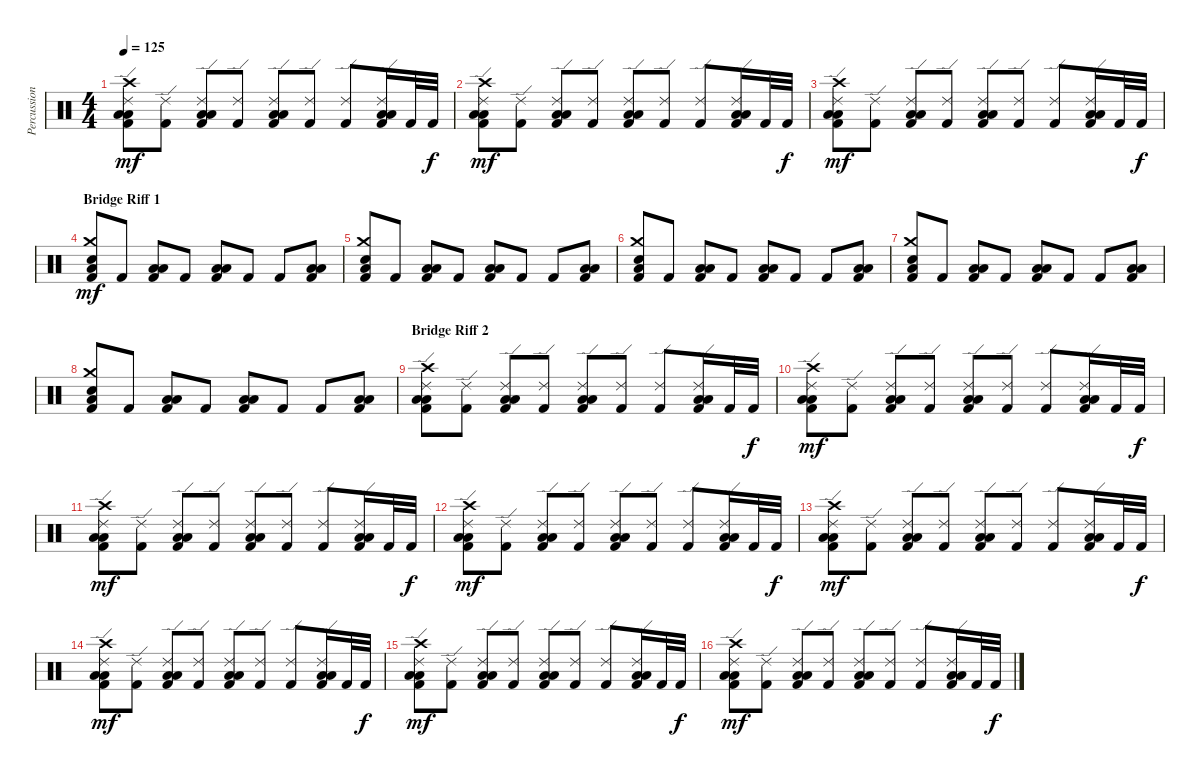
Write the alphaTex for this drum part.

\track ("Percussion" "Percussion") {instrument percussion}
\staff {score}
\articulation defaults
\ts (4 4)
\tempo 125
\clef neutral
\ks c
("Crash high (hit)" "Ride (edge) 2" "Low Tom (hit)" "Low Tom (hit)" "Kick (hit) 2").8{dy mf} ("Ride (edge) 2" "Kick (hit) 2").8 ("Ride (edge) 2" "Low Tom (hit)" "Low Tom (hit)" "Kick (hit) 2").8 ("Ride (edge) 2" "Kick (hit) 2").8 ("Ride (edge) 2" "Low Tom (hit)" "Low Tom (hit)" "Kick (hit) 2").8 ("Ride (edge) 2" "Kick (hit) 2").8 ("Ride (edge) 2" "Kick (hit) 2").8 ("Ride (edge) 2" "Low Tom (hit)" "Low Tom (hit)" "Kick (hit) 2").16 "Kick (hit) 2".32 "Kick (hit) 2".32{dy f} |
("Crash high (hit)" "Ride (edge) 2" "Low Tom (hit)" "Low Tom (hit)" "Kick (hit) 2").8{dy mf} ("Ride (edge) 2" "Kick (hit) 2").8 ("Ride (edge) 2" "Low Tom (hit)" "Low Tom (hit)" "Kick (hit) 2").8 ("Ride (edge) 2" "Kick (hit) 2").8 ("Ride (edge) 2" "Low Tom (hit)" "Low Tom (hit)" "Kick (hit) 2").8 ("Ride (edge) 2" "Kick (hit) 2").8 ("Ride (edge) 2" "Kick (hit) 2").8 ("Ride (edge) 2" "Low Tom (hit)" "Low Tom (hit)" "Kick (hit) 2").16 "Kick (hit) 2".32 "Kick (hit) 2".32{dy f} |
("Crash high (hit)" "Ride (edge) 2" "Low Tom (hit)" "Low Tom (hit)" "Kick (hit) 2").8{dy mf} ("Ride (edge) 2" "Kick (hit) 2").8 ("Ride (edge) 2" "Low Tom (hit)" "Low Tom (hit)" "Kick (hit) 2").8 ("Ride (edge) 2" "Kick (hit) 2").8 ("Ride (edge) 2" "Low Tom (hit)" "Low Tom (hit)" "Kick (hit) 2").8 ("Ride (edge) 2" "Kick (hit) 2").8 ("Ride (edge) 2" "Kick (hit) 2").8 ("Ride (edge) 2" "Low Tom (hit)" "Low Tom (hit)" "Kick (hit) 2").16 "Kick (hit) 2".32 "Kick (hit) 2".32{dy f} |
\section ("" "Bridge Riff 1")
("Crash medium (hit)" "Low Tom (hit)" "Electric Snare (hit)" "Kick (hit) 2").8{dy mf} "Kick (hit) 2".8 ("Low Tom (hit)" "Low Tom (hit)" "Kick (hit) 2").8 "Kick (hit) 2".8 ("Low Tom (hit)" "Low Tom (hit)" "Kick (hit) 2").8 "Kick (hit) 2".8 "Kick (hit) 2".8 ("Low Tom (hit)" "Low Tom (hit)" "Kick (hit) 2").8 |
("Crash medium (hit)" "Low Tom (hit)" "Electric Snare (hit)" "Kick (hit) 2").8 "Kick (hit) 2".8 ("Low Tom (hit)" "Low Tom (hit)" "Kick (hit) 2").8 "Kick (hit) 2".8 ("Low Tom (hit)" "Low Tom (hit)" "Kick (hit) 2").8 "Kick (hit) 2".8 "Kick (hit) 2".8 ("Low Tom (hit)" "Low Tom (hit)" "Kick (hit) 2").8 |
("Crash medium (hit)" "Low Tom (hit)" "Electric Snare (hit)" "Kick (hit) 2").8 "Kick (hit) 2".8 ("Low Tom (hit)" "Low Tom (hit)" "Kick (hit) 2").8 "Kick (hit) 2".8 ("Low Tom (hit)" "Low Tom (hit)" "Kick (hit) 2").8 "Kick (hit) 2".8 "Kick (hit) 2".8 ("Low Tom (hit)" "Low Tom (hit)" "Kick (hit) 2").8 |
("Crash medium (hit)" "Low Tom (hit)" "Electric Snare (hit)" "Kick (hit) 2").8 "Kick (hit) 2".8 ("Low Tom (hit)" "Low Tom (hit)" "Kick (hit) 2").8 "Kick (hit) 2".8 ("Low Tom (hit)" "Low Tom (hit)" "Kick (hit) 2").8 "Kick (hit) 2".8 "Kick (hit) 2".8 ("Low Tom (hit)" "Low Tom (hit)" "Kick (hit) 2").8 |
("Crash medium (hit)" "Low Tom (hit)" "Electric Snare (hit)" "Kick (hit) 2").8 "Kick (hit) 2".8 ("Low Tom (hit)" "Low Tom (hit)" "Kick (hit) 2").8 "Kick (hit) 2".8 ("Low Tom (hit)" "Low Tom (hit)" "Kick (hit) 2").8 "Kick (hit) 2".8 "Kick (hit) 2".8 ("Low Tom (hit)" "Low Tom (hit)" "Kick (hit) 2").8 |
\section ("" "Bridge Riff 2")
("Crash high (hit)" "Ride (edge) 2" "Low Tom (hit)" "Low Tom (hit)" "Kick (hit) 2").8 ("Ride (edge) 2" "Kick (hit) 2").8 ("Ride (edge) 2" "Low Tom (hit)" "Low Tom (hit)" "Kick (hit) 2").8 ("Ride (edge) 2" "Kick (hit) 2").8 ("Ride (edge) 2" "Low Tom (hit)" "Low Tom (hit)" "Kick (hit) 2").8 ("Ride (edge) 2" "Kick (hit) 2").8 ("Ride (edge) 2" "Kick (hit) 2").8 ("Ride (edge) 2" "Low Tom (hit)" "Low Tom (hit)" "Kick (hit) 2").16 "Kick (hit) 2".32 "Kick (hit) 2".32{dy f} |
("Crash high (hit)" "Ride (edge) 2" "Low Tom (hit)" "Low Tom (hit)" "Kick (hit) 2").8{dy mf} ("Ride (edge) 2" "Kick (hit) 2").8 ("Ride (edge) 2" "Low Tom (hit)" "Low Tom (hit)" "Kick (hit) 2").8 ("Ride (edge) 2" "Kick (hit) 2").8 ("Ride (edge) 2" "Low Tom (hit)" "Low Tom (hit)" "Kick (hit) 2").8 ("Ride (edge) 2" "Kick (hit) 2").8 ("Ride (edge) 2" "Kick (hit) 2").8 ("Ride (edge) 2" "Low Tom (hit)" "Low Tom (hit)" "Kick (hit) 2").16 "Kick (hit) 2".32 "Kick (hit) 2".32{dy f} |
("Crash high (hit)" "Ride (edge) 2" "Low Tom (hit)" "Low Tom (hit)" "Kick (hit) 2").8{dy mf} ("Ride (edge) 2" "Kick (hit) 2").8 ("Ride (edge) 2" "Low Tom (hit)" "Low Tom (hit)" "Kick (hit) 2").8 ("Ride (edge) 2" "Kick (hit) 2").8 ("Ride (edge) 2" "Low Tom (hit)" "Low Tom (hit)" "Kick (hit) 2").8 ("Ride (edge) 2" "Kick (hit) 2").8 ("Ride (edge) 2" "Kick (hit) 2").8 ("Ride (edge) 2" "Low Tom (hit)" "Low Tom (hit)" "Kick (hit) 2").16 "Kick (hit) 2".32 "Kick (hit) 2".32{dy f} |
("Crash high (hit)" "Ride (edge) 2" "Low Tom (hit)" "Low Tom (hit)" "Kick (hit) 2").8{dy mf} ("Ride (edge) 2" "Kick (hit) 2").8 ("Ride (edge) 2" "Low Tom (hit)" "Low Tom (hit)" "Kick (hit) 2").8 ("Ride (edge) 2" "Kick (hit) 2").8 ("Ride (edge) 2" "Low Tom (hit)" "Low Tom (hit)" "Kick (hit) 2").8 ("Ride (edge) 2" "Kick (hit) 2").8 ("Ride (edge) 2" "Kick (hit) 2").8 ("Ride (edge) 2" "Low Tom (hit)" "Low Tom (hit)" "Kick (hit) 2").16 "Kick (hit) 2".32 "Kick (hit) 2".32{dy f} |
("Crash high (hit)" "Ride (edge) 2" "Low Tom (hit)" "Low Tom (hit)" "Kick (hit) 2").8{dy mf} ("Ride (edge) 2" "Kick (hit) 2").8 ("Ride (edge) 2" "Low Tom (hit)" "Low Tom (hit)" "Kick (hit) 2").8 ("Ride (edge) 2" "Kick (hit) 2").8 ("Ride (edge) 2" "Low Tom (hit)" "Low Tom (hit)" "Kick (hit) 2").8 ("Ride (edge) 2" "Kick (hit) 2").8 ("Ride (edge) 2" "Kick (hit) 2").8 ("Ride (edge) 2" "Low Tom (hit)" "Low Tom (hit)" "Kick (hit) 2").16 "Kick (hit) 2".32 "Kick (hit) 2".32{dy f} |
("Crash high (hit)" "Ride (edge) 2" "Low Tom (hit)" "Low Tom (hit)" "Kick (hit) 2").8{dy mf} ("Ride (edge) 2" "Kick (hit) 2").8 ("Ride (edge) 2" "Low Tom (hit)" "Low Tom (hit)" "Kick (hit) 2").8 ("Ride (edge) 2" "Kick (hit) 2").8 ("Ride (edge) 2" "Low Tom (hit)" "Low Tom (hit)" "Kick (hit) 2").8 ("Ride (edge) 2" "Kick (hit) 2").8 ("Ride (edge) 2" "Kick (hit) 2").8 ("Ride (edge) 2" "Low Tom (hit)" "Low Tom (hit)" "Kick (hit) 2").16 "Kick (hit) 2".32 "Kick (hit) 2".32{dy f} |
("Crash high (hit)" "Ride (edge) 2" "Low Tom (hit)" "Low Tom (hit)" "Kick (hit) 2").8{dy mf} ("Ride (edge) 2" "Kick (hit) 2").8 ("Ride (edge) 2" "Low Tom (hit)" "Low Tom (hit)" "Kick (hit) 2").8 ("Ride (edge) 2" "Kick (hit) 2").8 ("Ride (edge) 2" "Low Tom (hit)" "Low Tom (hit)" "Kick (hit) 2").8 ("Ride (edge) 2" "Kick (hit) 2").8 ("Ride (edge) 2" "Kick (hit) 2").8 ("Ride (edge) 2" "Low Tom (hit)" "Low Tom (hit)" "Kick (hit) 2").16 "Kick (hit) 2".32 "Kick (hit) 2".32{dy f} |
("Crash high (hit)" "Ride (edge) 2" "Low Tom (hit)" "Low Tom (hit)" "Kick (hit) 2").8{dy mf} ("Ride (edge) 2" "Kick (hit) 2").8 ("Ride (edge) 2" "Low Tom (hit)" "Low Tom (hit)" "Kick (hit) 2").8 ("Ride (edge) 2" "Kick (hit) 2").8 ("Ride (edge) 2" "Low Tom (hit)" "Low Tom (hit)" "Kick (hit) 2").8 ("Ride (edge) 2" "Kick (hit) 2").8 ("Ride (edge) 2" "Kick (hit) 2").8 ("Ride (edge) 2" "Low Tom (hit)" "Low Tom (hit)" "Kick (hit) 2").16 "Kick (hit) 2".32 "Kick (hit) 2".32{dy f}
